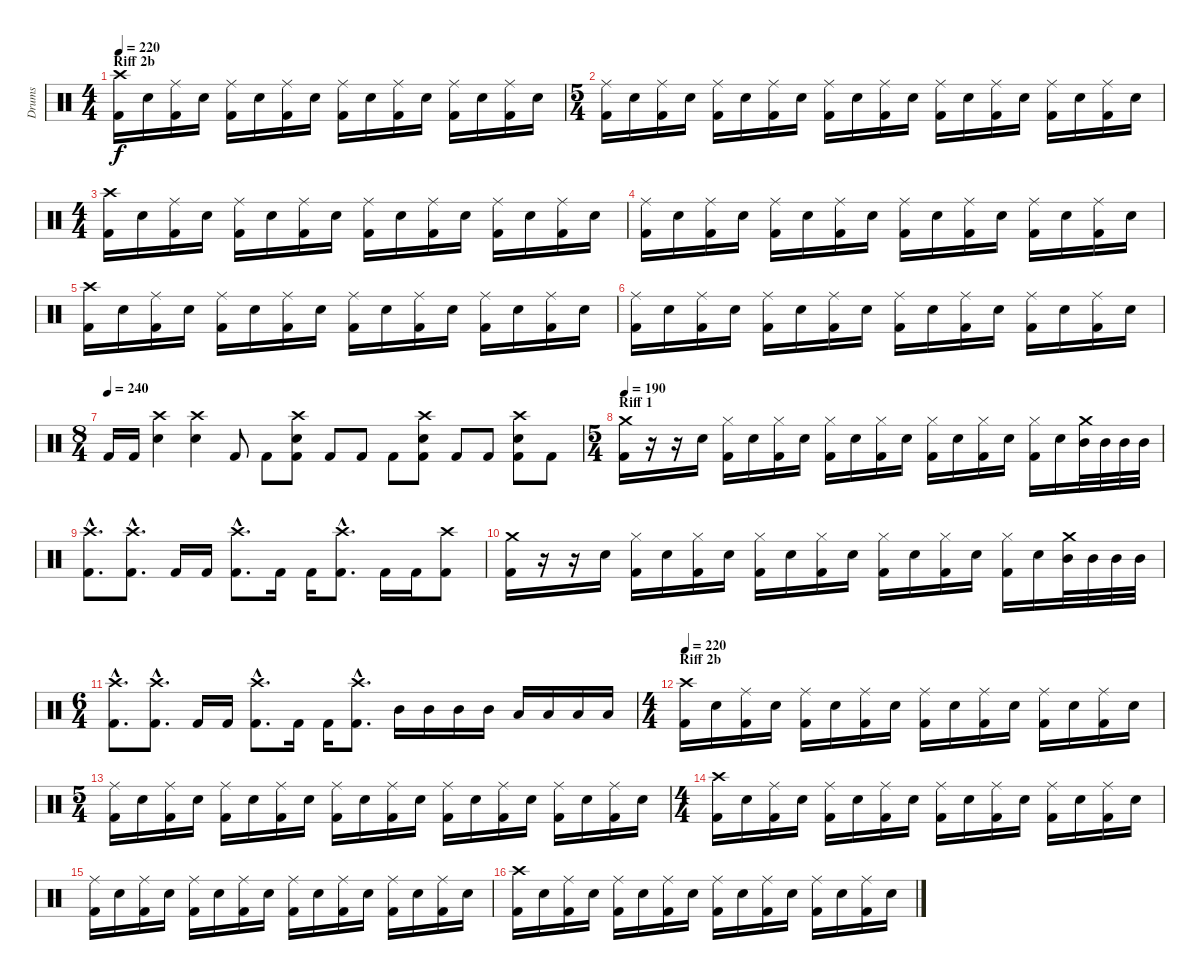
\track ("Drums" "Drums") {instrument percussion}
\staff {score}
\articulation defaults
\ts (4 4)
\section ("" "Riff 2b")
\tempo 220
\clef neutral
\ks c
("Crash high (hit)" "Kick (hit) 2").16{dy f} "Electric Snare (hit)".16 ("Ride (middle)" "Kick (hit) 2").16 "Electric Snare (hit)".16 ("Ride (middle)" "Kick (hit) 2").16 "Electric Snare (hit)".16 ("Ride (middle)" "Kick (hit) 2").16 "Electric Snare (hit)".16 ("Ride (middle)" "Kick (hit) 2").16 "Electric Snare (hit)".16 ("Ride (middle)" "Kick (hit) 2").16 "Electric Snare (hit)".16 ("Ride (middle)" "Kick (hit) 2").16 "Electric Snare (hit)".16 ("Ride (middle)" "Kick (hit) 2").16 "Electric Snare (hit)".16 |
\ts (5 4)
("Ride (middle)" "Kick (hit) 2").16 "Electric Snare (hit)".16 ("Ride (middle)" "Kick (hit) 2").16 "Electric Snare (hit)".16 ("Ride (middle)" "Kick (hit) 2").16 "Electric Snare (hit)".16 ("Ride (middle)" "Kick (hit) 2").16 "Electric Snare (hit)".16 ("Ride (middle)" "Kick (hit) 2").16 "Electric Snare (hit)".16 ("Ride (middle)" "Kick (hit) 2").16 "Electric Snare (hit)".16 ("Ride (middle)" "Kick (hit) 2").16 "Electric Snare (hit)".16 ("Ride (middle)" "Kick (hit) 2").16 "Electric Snare (hit)".16 ("Ride (middle)" "Kick (hit) 2").16 "Electric Snare (hit)".16 ("Ride (middle)" "Kick (hit) 2").16 "Electric Snare (hit)".16 |
\ts (4 4)
("Crash high (hit)" "Kick (hit) 2").16 "Electric Snare (hit)".16 ("Ride (middle)" "Kick (hit) 2").16 "Electric Snare (hit)".16 ("Ride (middle)" "Kick (hit) 2").16 "Electric Snare (hit)".16 ("Ride (middle)" "Kick (hit) 2").16 "Electric Snare (hit)".16 ("Ride (middle)" "Kick (hit) 2").16 "Electric Snare (hit)".16 ("Ride (middle)" "Kick (hit) 2").16 "Electric Snare (hit)".16 ("Ride (middle)" "Kick (hit) 2").16 "Electric Snare (hit)".16 ("Ride (middle)" "Kick (hit) 2").16 "Electric Snare (hit)".16 |
("Ride (middle)" "Kick (hit) 2").16 "Electric Snare (hit)".16 ("Ride (middle)" "Kick (hit) 2").16 "Electric Snare (hit)".16 ("Ride (middle)" "Kick (hit) 2").16 "Electric Snare (hit)".16 ("Ride (middle)" "Kick (hit) 2").16 "Electric Snare (hit)".16 ("Ride (middle)" "Kick (hit) 2").16 "Electric Snare (hit)".16 ("Ride (middle)" "Kick (hit) 2").16 "Electric Snare (hit)".16 ("Ride (middle)" "Kick (hit) 2").16 "Electric Snare (hit)".16 ("Ride (middle)" "Kick (hit) 2").16 "Electric Snare (hit)".16 |
("Crash high (hit)" "Kick (hit) 2").16 "Electric Snare (hit)".16 ("Ride (middle)" "Kick (hit) 2").16 "Electric Snare (hit)".16 ("Ride (middle)" "Kick (hit) 2").16 "Electric Snare (hit)".16 ("Ride (middle)" "Kick (hit) 2").16 "Electric Snare (hit)".16 ("Ride (middle)" "Kick (hit) 2").16 "Electric Snare (hit)".16 ("Ride (middle)" "Kick (hit) 2").16 "Electric Snare (hit)".16 ("Ride (middle)" "Kick (hit) 2").16 "Electric Snare (hit)".16 ("Ride (middle)" "Kick (hit) 2").16 "Electric Snare (hit)".16 |
("Ride (middle)" "Kick (hit) 2").16 "Electric Snare (hit)".16 ("Ride (middle)" "Kick (hit) 2").16 "Electric Snare (hit)".16 ("Ride (middle)" "Kick (hit) 2").16 "Electric Snare (hit)".16 ("Ride (middle)" "Kick (hit) 2").16 "Electric Snare (hit)".16 ("Ride (middle)" "Kick (hit) 2").16 "Electric Snare (hit)".16 ("Ride (middle)" "Kick (hit) 2").16 "Electric Snare (hit)".16 ("Ride (middle)" "Kick (hit) 2").16 "Electric Snare (hit)".16 ("Ride (middle)" "Kick (hit) 2").16 "Electric Snare (hit)".16 |
\ts (8 4)
\tempo (240)
"Kick (hit) 2".16 "Kick (hit) 2".16 ("Crash high (hit)" "Electric Snare (hit)").4 ("Crash high (hit)" "Electric Snare (hit)").4 "Kick (hit) 2".8 "Kick (hit) 2".8 ("Crash high (hit)" "Electric Snare (hit)" "Kick (hit) 2").8 "Kick (hit) 2".8 "Kick (hit) 2".8 "Kick (hit) 2".8 ("Crash high (hit)" "Electric Snare (hit)" "Kick (hit) 2").8 "Kick (hit) 2".8 "Kick (hit) 2".8 ("Crash high (hit)" "Electric Snare (hit)" "Kick (hit) 2").8 "Kick (hit) 2".8 |
\ts (5 4)
\section ("" "Riff 1")
\tempo 190
("Crash medium (hit)" "Kick (hit) 2").16 r.16 r.16 "Electric Snare (hit)".16 ("Hi-Hat (closed)" "Kick (hit) 2").16 "Electric Snare (hit)".16 ("Hi-Hat (closed)" "Kick (hit) 2").16 "Electric Snare (hit)".16 ("Hi-Hat (closed)" "Kick (hit) 2").16 "Electric Snare (hit)".16 ("Hi-Hat (closed)" "Kick (hit) 2").16 "Electric Snare (hit)".16 ("Hi-Hat (closed)" "Kick (hit) 2").16 "Electric Snare (hit)".16 ("Hi-Hat (closed)" "Kick (hit) 2").16 "Electric Snare (hit)".16 ("Hi-Hat (closed)" "Kick (hit) 2").16 "Electric Snare (hit)".16 ("Crash medium (hit)" "Mid Tom (hit)").32 "Mid Tom (hit)".32 "Mid Tom (hit)".32 "Mid Tom (hit)".32 |
("Crash high (hit)"{hac} "Kick (hit) 2"{hac}).8{d} ("Crash high (hit)"{hac} "Kick (hit) 2"{hac}).8{d} "Kick (hit) 2".16 "Kick (hit) 2".16 ("Crash high (hit)"{hac} "Kick (hit) 2"{hac}).8{d} "Kick (hit) 2".16 "Kick (hit) 2".16 ("Crash high (hit)"{hac} "Kick (hit) 2"{hac}).8{d} "Kick (hit) 2".16 "Kick (hit) 2".16 ("Crash high (hit)" "Kick (hit) 2").8 |
("Crash medium (hit)" "Kick (hit) 2").16 r.16 r.16 "Electric Snare (hit)".16 ("Hi-Hat (closed)" "Kick (hit) 2").16 "Electric Snare (hit)".16 ("Hi-Hat (closed)" "Kick (hit) 2").16 "Electric Snare (hit)".16 ("Hi-Hat (closed)" "Kick (hit) 2").16 "Electric Snare (hit)".16 ("Hi-Hat (closed)" "Kick (hit) 2").16 "Electric Snare (hit)".16 ("Hi-Hat (closed)" "Kick (hit) 2").16 "Electric Snare (hit)".16 ("Hi-Hat (closed)" "Kick (hit) 2").16 "Electric Snare (hit)".16 ("Hi-Hat (closed)" "Kick (hit) 2").16 "Electric Snare (hit)".16 ("Crash medium (hit)" "Mid Tom (hit)").32 "Mid Tom (hit)".32 "Mid Tom (hit)".32 "Mid Tom (hit)".32 |
\ts (6 4)
("Crash high (hit)"{hac} "Kick (hit) 2"{hac}).8{d} ("Crash high (hit)"{hac} "Kick (hit) 2"{hac}).8{d} "Kick (hit) 2".16 "Kick (hit) 2".16 ("Crash high (hit)"{hac} "Kick (hit) 2"{hac}).8{d} "Kick (hit) 2".16 "Kick (hit) 2".16 ("Crash high (hit)"{hac} "Kick (hit) 2"{hac}).8{d} "Mid Tom (hit)".16 "Mid Tom (hit)".16 "Mid Tom (hit)".16 "Mid Tom (hit)".16 "Low Tom (hit)".16 "Low Tom (hit)".16 "Low Tom (hit)".16 "Low Tom (hit)".16 |
\ts (4 4)
\section ("" "Riff 2b")
\tempo 220
("Crash high (hit)" "Kick (hit) 2").16 "Electric Snare (hit)".16 ("Ride (middle)" "Kick (hit) 2").16 "Electric Snare (hit)".16 ("Ride (middle)" "Kick (hit) 2").16 "Electric Snare (hit)".16 ("Ride (middle)" "Kick (hit) 2").16 "Electric Snare (hit)".16 ("Ride (middle)" "Kick (hit) 2").16 "Electric Snare (hit)".16 ("Ride (middle)" "Kick (hit) 2").16 "Electric Snare (hit)".16 ("Ride (middle)" "Kick (hit) 2").16 "Electric Snare (hit)".16 ("Ride (middle)" "Kick (hit) 2").16 "Electric Snare (hit)".16 |
\ts (5 4)
("Ride (middle)" "Kick (hit) 2").16 "Electric Snare (hit)".16 ("Ride (middle)" "Kick (hit) 2").16 "Electric Snare (hit)".16 ("Ride (middle)" "Kick (hit) 2").16 "Electric Snare (hit)".16 ("Ride (middle)" "Kick (hit) 2").16 "Electric Snare (hit)".16 ("Ride (middle)" "Kick (hit) 2").16 "Electric Snare (hit)".16 ("Ride (middle)" "Kick (hit) 2").16 "Electric Snare (hit)".16 ("Ride (middle)" "Kick (hit) 2").16 "Electric Snare (hit)".16 ("Ride (middle)" "Kick (hit) 2").16 "Electric Snare (hit)".16 ("Ride (middle)" "Kick (hit) 2").16 "Electric Snare (hit)".16 ("Ride (middle)" "Kick (hit) 2").16 "Electric Snare (hit)".16 |
\ts (4 4)
("Crash high (hit)" "Kick (hit) 2").16 "Electric Snare (hit)".16 ("Ride (middle)" "Kick (hit) 2").16 "Electric Snare (hit)".16 ("Ride (middle)" "Kick (hit) 2").16 "Electric Snare (hit)".16 ("Ride (middle)" "Kick (hit) 2").16 "Electric Snare (hit)".16 ("Ride (middle)" "Kick (hit) 2").16 "Electric Snare (hit)".16 ("Ride (middle)" "Kick (hit) 2").16 "Electric Snare (hit)".16 ("Ride (middle)" "Kick (hit) 2").16 "Electric Snare (hit)".16 ("Ride (middle)" "Kick (hit) 2").16 "Electric Snare (hit)".16 |
("Ride (middle)" "Kick (hit) 2").16 "Electric Snare (hit)".16 ("Ride (middle)" "Kick (hit) 2").16 "Electric Snare (hit)".16 ("Ride (middle)" "Kick (hit) 2").16 "Electric Snare (hit)".16 ("Ride (middle)" "Kick (hit) 2").16 "Electric Snare (hit)".16 ("Ride (middle)" "Kick (hit) 2").16 "Electric Snare (hit)".16 ("Ride (middle)" "Kick (hit) 2").16 "Electric Snare (hit)".16 ("Ride (middle)" "Kick (hit) 2").16 "Electric Snare (hit)".16 ("Ride (middle)" "Kick (hit) 2").16 "Electric Snare (hit)".16 |
("Crash high (hit)" "Kick (hit) 2").16 "Electric Snare (hit)".16 ("Ride (middle)" "Kick (hit) 2").16 "Electric Snare (hit)".16 ("Ride (middle)" "Kick (hit) 2").16 "Electric Snare (hit)".16 ("Ride (middle)" "Kick (hit) 2").16 "Electric Snare (hit)".16 ("Ride (middle)" "Kick (hit) 2").16 "Electric Snare (hit)".16 ("Ride (middle)" "Kick (hit) 2").16 "Electric Snare (hit)".16 ("Ride (middle)" "Kick (hit) 2").16 "Electric Snare (hit)".16 ("Ride (middle)" "Kick (hit) 2").16 "Electric Snare (hit)".16
